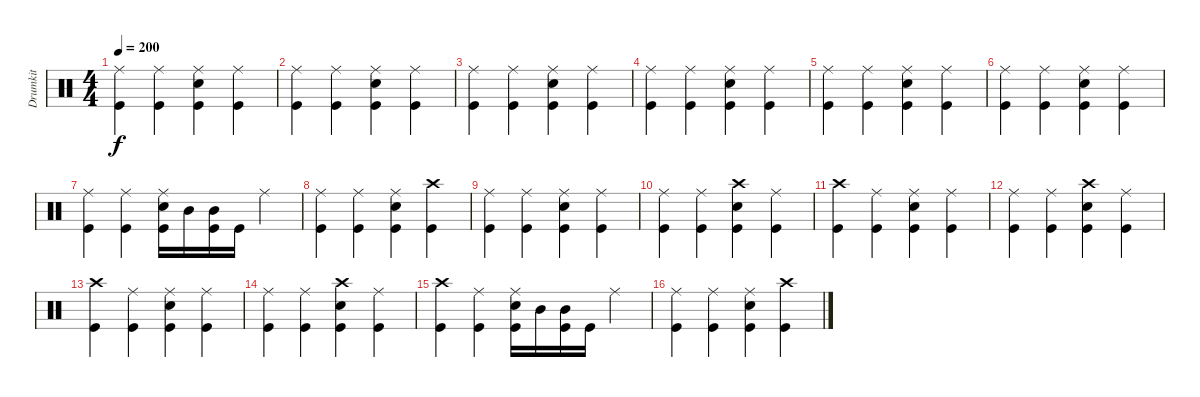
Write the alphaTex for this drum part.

\track ("Drumkit" "Drumkit") {instrument percussion}
\staff {score}
\articulation defaults
\ts (4 4)
\tempo 200
\clef neutral
\ks c
("Ride (middle)" "Kick (hit)").4{dy f} ("Ride (middle)" "Kick (hit)").4 ("Ride (middle)" "Snare (hit) 2" "Kick (hit)").4 ("Ride (middle)" "Kick (hit)").4 |
("Ride (middle)" "Kick (hit)").4 ("Ride (middle)" "Kick (hit)").4 ("Ride (middle)" "Snare (hit) 2" "Kick (hit)").4 ("Ride (middle)" "Kick (hit)").4 |
("Ride (middle)" "Kick (hit)").4 ("Ride (middle)" "Kick (hit)").4 ("Ride (middle)" "Snare (hit) 2" "Kick (hit)").4 ("Ride (middle)" "Kick (hit)").4 |
("Ride (middle)" "Kick (hit)").4 ("Ride (middle)" "Kick (hit)").4 ("Ride (middle)" "Snare (hit) 2" "Kick (hit)").4 ("Ride (middle)" "Kick (hit)").4 |
("Ride (middle)" "Kick (hit)").4 ("Ride (middle)" "Kick (hit)").4 ("Ride (middle)" "Snare (hit) 2" "Kick (hit)").4 ("Ride (middle)" "Kick (hit)").4 |
("Ride (middle)" "Kick (hit)").4 ("Ride (middle)" "Kick (hit)").4 ("Ride (middle)" "Snare (hit) 2" "Kick (hit)").4 ("Ride (middle)" "Kick (hit)").4 |
("Ride (middle)" "Kick (hit)").4 ("Ride (middle)" "Kick (hit)").4 ("Ride (middle)" "Snare (hit) 2" "Kick (hit)").16 "Mid Tom (hit)".16 ("Mid Tom (hit)" "Kick (hit)").16 "Kick (hit)".16 "Ride (middle)".4 |
("Ride (middle)" "Kick (hit)").4 ("Ride (middle)" "Kick (hit)").4 ("Ride (middle)" "Snare (hit) 2" "Kick (hit)").4 ("Crash high (hit)" "Kick (hit)").4 |
("Ride (middle)" "Kick (hit)").4 ("Ride (middle)" "Kick (hit)").4 ("Ride (middle)" "Snare (hit) 2" "Kick (hit)").4 ("Ride (middle)" "Kick (hit)").4 |
("Ride (middle)" "Kick (hit)").4 ("Ride (middle)" "Kick (hit)").4 ("Crash high (hit)" "Snare (hit) 2" "Kick (hit)").4 ("Ride (middle)" "Kick (hit)").4 |
("Crash high (hit)" "Kick (hit)").4 ("Ride (middle)" "Kick (hit)").4 ("Ride (middle)" "Snare (hit) 2" "Kick (hit)").4 ("Ride (middle)" "Kick (hit)").4 |
("Ride (middle)" "Kick (hit)").4 ("Ride (middle)" "Kick (hit)").4 ("Crash high (hit)" "Snare (hit) 2" "Kick (hit)").4 ("Ride (middle)" "Kick (hit)").4 |
("Crash high (hit)" "Kick (hit)").4 ("Ride (middle)" "Kick (hit)").4 ("Ride (middle)" "Snare (hit) 2" "Kick (hit)").4 ("Ride (middle)" "Kick (hit)").4 |
("Ride (middle)" "Kick (hit)").4 ("Ride (middle)" "Kick (hit)").4 ("Crash high (hit)" "Snare (hit) 2" "Kick (hit)").4 ("Ride (middle)" "Kick (hit)").4 |
("Crash high (hit)" "Kick (hit)").4 ("Ride (middle)" "Kick (hit)").4 ("Ride (middle)" "Snare (hit) 2" "Kick (hit)").16 "Mid Tom (hit)".16 ("Mid Tom (hit)" "Kick (hit)").16 "Kick (hit)".16 "Ride (middle)".4 |
("Ride (middle)" "Kick (hit)").4 ("Ride (middle)" "Kick (hit)").4 ("Ride (middle)" "Snare (hit) 2" "Kick (hit)").4 ("Crash high (hit)" "Kick (hit)").4
